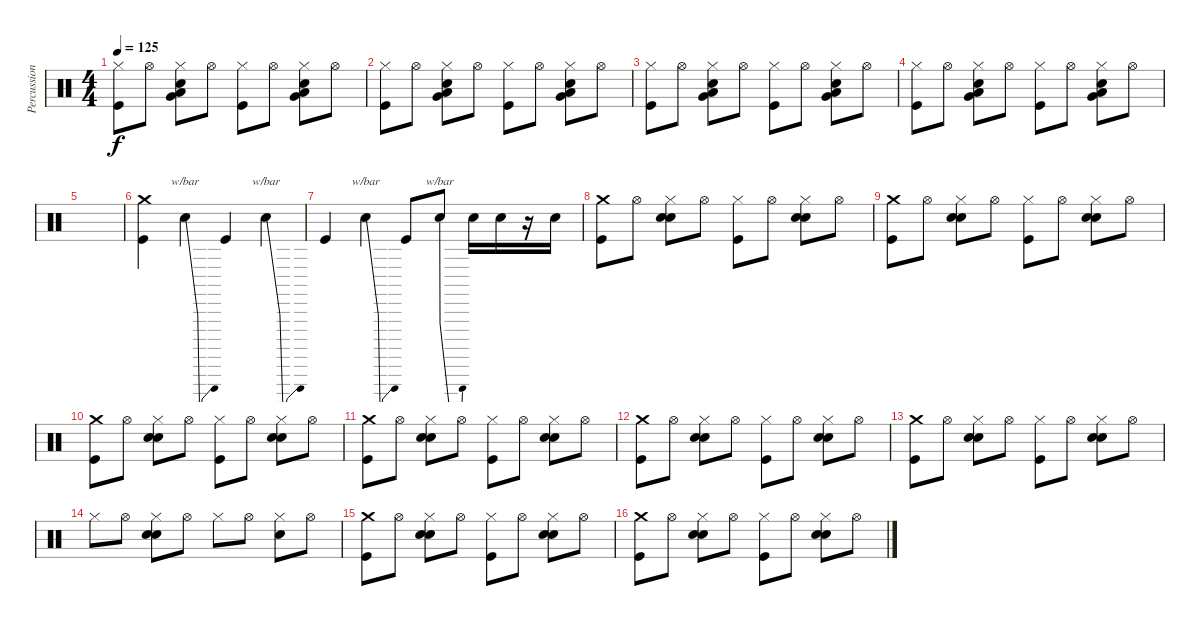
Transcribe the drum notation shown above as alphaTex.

\track ("Percussions" "Percussion") {instrument percussion}
\staff {score}
\articulation defaults
\ts (4 4)
\tempo 125
\clef neutral
\ks c
("Hi-Hat (closed)" "Kick (hit)").8{dy f} "Hi-Hat (open)".8 ("Hi-Hat (closed)" "Very Low Tom (hit)" "Low Floor Tom (hit)" "Snare (hit) 2").8 "Hi-Hat (open)".8 ("Hi-Hat (closed)" "Kick (hit)").8 "Hi-Hat (open)".8 ("Hi-Hat (closed)" "Very Low Tom (hit)" "Low Floor Tom (hit)" "Snare (hit) 2").8 "Hi-Hat (open)".8 |
("Hi-Hat (closed)" "Kick (hit)").8 "Hi-Hat (open)".8 ("Hi-Hat (closed)" "Very Low Tom (hit)" "Low Floor Tom (hit)" "Snare (hit) 2").8 "Hi-Hat (open)".8 ("Hi-Hat (closed)" "Kick (hit)").8 "Hi-Hat (open)".8 ("Hi-Hat (closed)" "Very Low Tom (hit)" "Low Floor Tom (hit)" "Snare (hit) 2").8 "Hi-Hat (open)".8 |
("Hi-Hat (closed)" "Kick (hit)").8 "Hi-Hat (open)".8 ("Hi-Hat (closed)" "Very Low Tom (hit)" "Low Floor Tom (hit)" "Snare (hit) 2").8 "Hi-Hat (open)".8 ("Hi-Hat (closed)" "Kick (hit)").8 "Hi-Hat (open)".8 ("Hi-Hat (closed)" "Very Low Tom (hit)" "Low Floor Tom (hit)" "Snare (hit) 2").8 "Hi-Hat (open)".8 |
("Hi-Hat (closed)" "Kick (hit)").8 "Hi-Hat (open)".8 ("Hi-Hat (closed)" "Very Low Tom (hit)" "Low Floor Tom (hit)" "Snare (hit) 2").8 "Hi-Hat (open)".8 ("Hi-Hat (closed)" "Kick (hit)").8 "Hi-Hat (open)".8 ("Hi-Hat (closed)" "Very Low Tom (hit)" "Low Floor Tom (hit)" "Snare (hit) 2").8 "Hi-Hat (open)".8 |
|
("Crash medium (hit)" "Kick (hit)").4 "Hand Clap (hit)".4{tbe (dip default 0 0 30 -24 60 0)} "Kick (hit)".4 "Hand Clap (hit)".4{tbe (dip default 0 0 30 -24 60 0)} |
"Kick (hit)".4 "Hand Clap (hit)".4{tbe (dip default 0 0 30 -24 60 0)} "Kick (hit)".8 "Hand Clap (hit)".8{tbe (dip default 0 0 30 -24 60 0)} "Hand Clap (hit)".16 "Hand Clap (hit)".16 r.16 "Hand Clap (hit)".16 |
("Crash medium (hit)" "Kick (hit)").8{volume 10} "Hi-Hat (open)".8 ("Snare (hit) 2" "Hi-Hat (closed)" "Hand Clap (hit)").8 "Hi-Hat (open)".8 ("Hi-Hat (closed)" "Kick (hit)").8 "Hi-Hat (open)".8 ("Snare (hit) 2" "Hi-Hat (closed)" "Hand Clap (hit)").8 "Hi-Hat (open)".8 |
("Crash medium (hit)" "Kick (hit)").8 "Hi-Hat (open)".8 ("Snare (hit) 2" "Hi-Hat (closed)" "Hand Clap (hit)").8 "Hi-Hat (open)".8 ("Hi-Hat (closed)" "Kick (hit)").8 "Hi-Hat (open)".8 ("Snare (hit) 2" "Hi-Hat (closed)" "Hand Clap (hit)").8 "Hi-Hat (open)".8 |
("Crash medium (hit)" "Kick (hit)").8{volume 10} "Hi-Hat (open)".8 ("Snare (hit) 2" "Hi-Hat (closed)" "Hand Clap (hit)").8 "Hi-Hat (open)".8 ("Hi-Hat (closed)" "Kick (hit)").8 "Hi-Hat (open)".8 ("Snare (hit) 2" "Hi-Hat (closed)" "Hand Clap (hit)").8 "Hi-Hat (open)".8 |
("Crash medium (hit)" "Kick (hit)").8 "Hi-Hat (open)".8 ("Snare (hit) 2" "Hi-Hat (closed)" "Hand Clap (hit)").8 "Hi-Hat (open)".8 ("Hi-Hat (closed)" "Kick (hit)").8 "Hi-Hat (open)".8 ("Snare (hit) 2" "Hi-Hat (closed)" "Hand Clap (hit)").8 "Hi-Hat (open)".8 |
("Crash medium (hit)" "Kick (hit)").8{volume 10} "Hi-Hat (open)".8 ("Snare (hit) 2" "Hi-Hat (closed)" "Hand Clap (hit)").8 "Hi-Hat (open)".8 ("Hi-Hat (closed)" "Kick (hit)").8 "Hi-Hat (open)".8 ("Snare (hit) 2" "Hi-Hat (closed)" "Hand Clap (hit)").8 "Hi-Hat (open)".8 |
("Crash medium (hit)" "Kick (hit)").8 "Hi-Hat (open)".8 ("Snare (hit) 2" "Hi-Hat (closed)" "Hand Clap (hit)").8 "Hi-Hat (open)".8 ("Hi-Hat (closed)" "Kick (hit)").8 "Hi-Hat (open)".8 ("Snare (hit) 2" "Hi-Hat (closed)" "Hand Clap (hit)").8 "Hi-Hat (open)".8 |
"Hi-Hat (closed)".8{volume 10} "Hi-Hat (open)".8 ("Snare (hit) 2" "Hi-Hat (closed)" "Hand Clap (hit)").8 "Hi-Hat (open)".8 "Hi-Hat (closed)".8 "Hi-Hat (open)".8 ("Hand Clap (hit)" "Hi-Hat (closed)").8 "Hi-Hat (open)".8 |
("Crash medium (hit)" "Kick (hit)").8 "Hi-Hat (open)".8 ("Snare (hit) 2" "Hi-Hat (closed)" "Hand Clap (hit)").8 "Hi-Hat (open)".8 ("Hi-Hat (closed)" "Kick (hit)").8 "Hi-Hat (open)".8 ("Snare (hit) 2" "Hi-Hat (closed)" "Hand Clap (hit)").8 "Hi-Hat (open)".8 |
("Crash medium (hit)" "Kick (hit)").8{volume 10} "Hi-Hat (open)".8 ("Snare (hit) 2" "Hi-Hat (closed)" "Hand Clap (hit)").8 "Hi-Hat (open)".8 ("Hi-Hat (closed)" "Kick (hit)").8 "Hi-Hat (open)".8 ("Snare (hit) 2" "Hi-Hat (closed)" "Hand Clap (hit)").8 "Hi-Hat (open)".8
